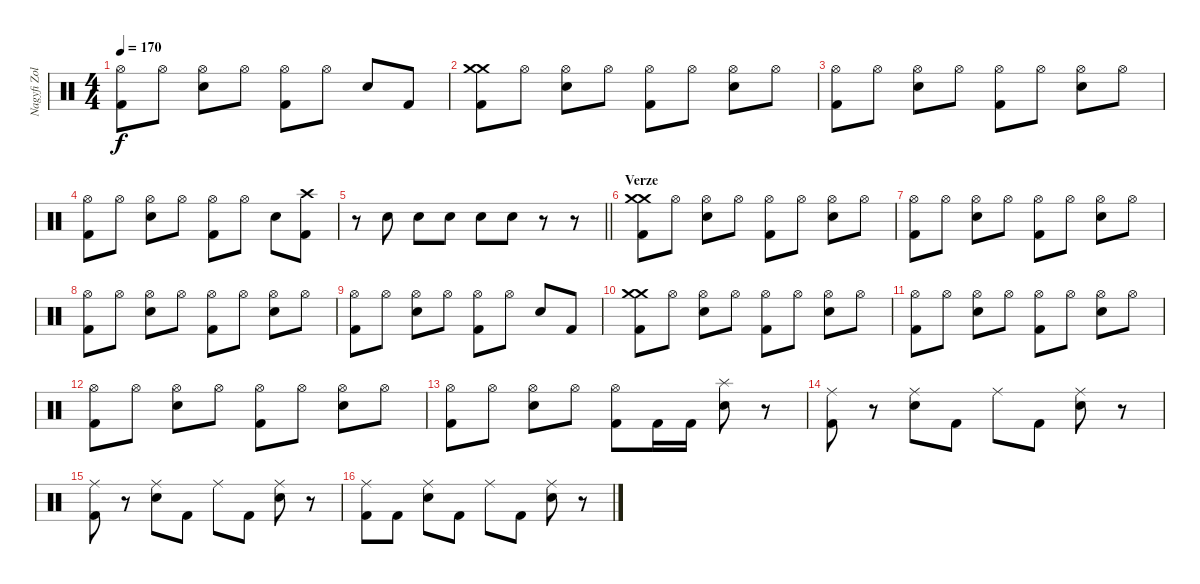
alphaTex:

\track ("Nagyfi Zoltán - Dob" "Nagyfi Zol") {instrument percussion}
\staff {score}
\articulation defaults
\ts (4 4)
\tempo 170
\clef neutral
\ks c
("Hi-Hat (open)" "Kick (hit) 2").8{dy f} "Hi-Hat (open)".8 ("Hi-Hat (open)" "Electric Snare (hit)").8 "Hi-Hat (open)".8 ("Hi-Hat (open)" "Kick (hit) 2").8 "Hi-Hat (open)".8 "Electric Snare (hit)".8 "Kick (hit) 2".8 |
("Crash medium (hit)" "Crash medium (hit)" "Kick (hit) 2").8 "Hi-Hat (open)".8 ("Hi-Hat (open)" "Electric Snare (hit)").8 "Hi-Hat (open)".8 ("Hi-Hat (open)" "Kick (hit) 2").8 "Hi-Hat (open)".8 ("Hi-Hat (open)" "Electric Snare (hit)").8 "Hi-Hat (open)".8 |
("Hi-Hat (open)" "Kick (hit) 2").8 "Hi-Hat (open)".8 ("Hi-Hat (open)" "Electric Snare (hit)").8 "Hi-Hat (open)".8 ("Hi-Hat (open)" "Kick (hit) 2").8 "Hi-Hat (open)".8 ("Hi-Hat (open)" "Electric Snare (hit)").8 "Hi-Hat (open)".8 |
("Hi-Hat (open)" "Kick (hit) 2").8 "Hi-Hat (open)".8 ("Hi-Hat (open)" "Electric Snare (hit)").8 "Hi-Hat (open)".8 ("Hi-Hat (open)" "Kick (hit) 2").8 "Hi-Hat (open)".8 "Electric Snare (hit)".8 ("Crash high (hit)" "Kick (hit) 2").8 |
\barLineRight lightlight
r.8 "Electric Snare (hit)".8 "Electric Snare (hit)".8 "Electric Snare (hit)".8 "Electric Snare (hit)".8 "Electric Snare (hit)".8 r.8 r.8 |
\section ("" "Verze")
("Crash medium (hit)" "Crash medium (hit)" "Kick (hit) 2").8 "Hi-Hat (open)".8 ("Hi-Hat (open)" "Electric Snare (hit)").8 "Hi-Hat (open)".8 ("Hi-Hat (open)" "Kick (hit) 2").8 "Hi-Hat (open)".8 ("Hi-Hat (open)" "Electric Snare (hit)").8 "Hi-Hat (open)".8 |
("Hi-Hat (open)" "Kick (hit) 2").8 "Hi-Hat (open)".8 ("Hi-Hat (open)" "Electric Snare (hit)").8 "Hi-Hat (open)".8 ("Hi-Hat (open)" "Kick (hit) 2").8 "Hi-Hat (open)".8 ("Hi-Hat (open)" "Electric Snare (hit)").8 "Hi-Hat (open)".8 |
("Hi-Hat (open)" "Kick (hit) 2").8 "Hi-Hat (open)".8 ("Hi-Hat (open)" "Electric Snare (hit)").8 "Hi-Hat (open)".8 ("Hi-Hat (open)" "Kick (hit) 2").8 "Hi-Hat (open)".8 ("Hi-Hat (open)" "Electric Snare (hit)").8 "Hi-Hat (open)".8 |
("Hi-Hat (open)" "Kick (hit) 2").8 "Hi-Hat (open)".8 ("Hi-Hat (open)" "Electric Snare (hit)").8 "Hi-Hat (open)".8 ("Hi-Hat (open)" "Kick (hit) 2").8 "Hi-Hat (open)".8 "Electric Snare (hit)".8 "Kick (hit) 2".8 |
("Crash medium (hit)" "Crash medium (hit)" "Kick (hit) 2").8 "Hi-Hat (open)".8 ("Hi-Hat (open)" "Electric Snare (hit)").8 "Hi-Hat (open)".8 ("Hi-Hat (open)" "Kick (hit) 2").8 "Hi-Hat (open)".8 ("Hi-Hat (open)" "Electric Snare (hit)").8 "Hi-Hat (open)".8 |
("Hi-Hat (open)" "Kick (hit) 2").8 "Hi-Hat (open)".8 ("Hi-Hat (open)" "Electric Snare (hit)").8 "Hi-Hat (open)".8 ("Hi-Hat (open)" "Kick (hit) 2").8 "Hi-Hat (open)".8 ("Hi-Hat (open)" "Electric Snare (hit)").8 "Hi-Hat (open)".8 |
("Hi-Hat (open)" "Kick (hit) 2").8 "Hi-Hat (open)".8 ("Hi-Hat (open)" "Electric Snare (hit)").8 "Hi-Hat (open)".8 ("Hi-Hat (open)" "Kick (hit) 2").8 "Hi-Hat (open)".8 ("Hi-Hat (open)" "Electric Snare (hit)").8 "Hi-Hat (open)".8 |
("Hi-Hat (open)" "Kick (hit) 2").8 "Hi-Hat (open)".8 ("Hi-Hat (open)" "Electric Snare (hit)").8 "Hi-Hat (open)".8 ("Hi-Hat (open)" "Kick (hit) 2").8 "Kick (hit) 2".16 "Kick (hit) 2".16 ("Splash (hit)" "Electric Snare (hit)").8 r.8 |
("Ride (middle)" "Kick (hit) 2").8 r.8 ("Ride (middle)" "Electric Snare (hit)").8 "Kick (hit) 2".8 "Ride (middle)".8 "Kick (hit) 2".8 ("Ride (middle)" "Electric Snare (hit)").8 r.8 |
("Ride (middle)" "Kick (hit) 2").8 r.8 ("Ride (middle)" "Electric Snare (hit)").8 "Kick (hit) 2".8 "Ride (middle)".8 "Kick (hit) 2".8 ("Ride (middle)" "Electric Snare (hit)").8 r.8 |
("Ride (middle)" "Kick (hit) 2").8 "Kick (hit) 2".8 ("Ride (middle)" "Electric Snare (hit)").8 "Kick (hit) 2".8 "Ride (middle)".8 "Kick (hit) 2".8 ("Ride (middle)" "Electric Snare (hit)").8 r.8
